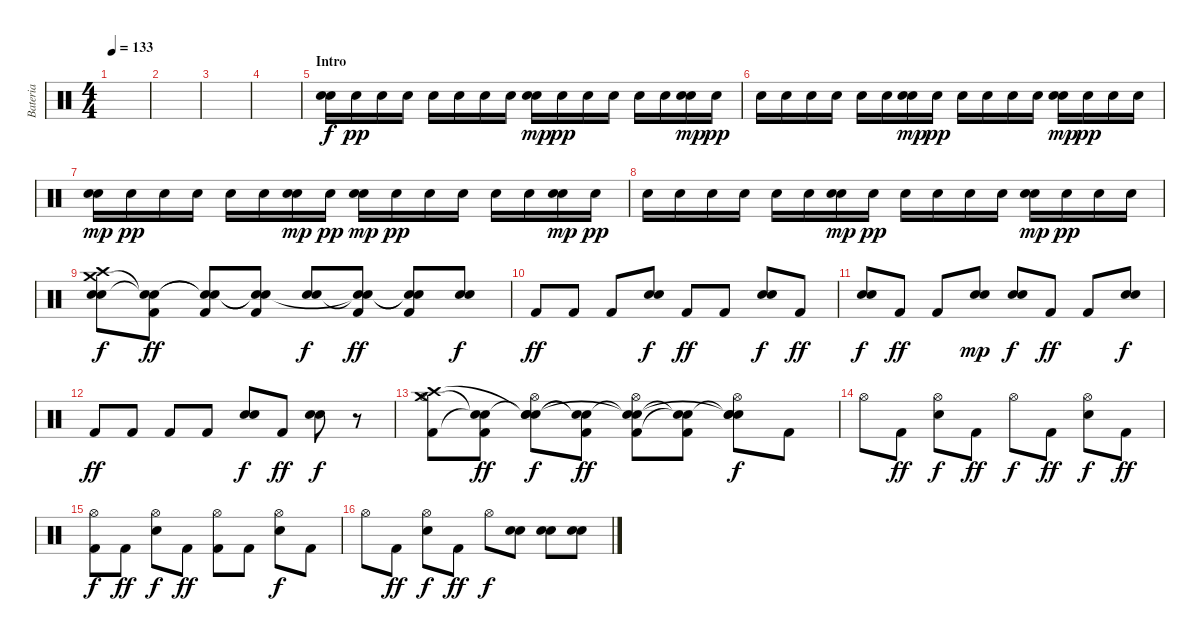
\track ("Bateria" "Bateria") {instrument percussion}
\staff {score}
\articulation defaults
\ts (4 4)
\tempo 133
\clef neutral
\ks c
|
|
|
|
\section ("" "Intro")
("Snare (hit) 2" "Snare (hit) 2").16 "Snare (hit) 2".16{dy pp} "Snare (hit) 2".16 "Snare (hit) 2".16 "Snare (hit) 2".16 "Snare (hit) 2".16 "Snare (hit) 2".16 "Snare (hit) 2".16 ("Snare (hit) 2" "Snare (hit) 2").16{dy mp} "Snare (hit) 2".16{dy pp} "Snare (hit) 2".16 "Snare (hit) 2".16 "Snare (hit) 2".16 "Snare (hit) 2".16 ("Snare (hit) 2" "Snare (hit) 2").16{dy mp} "Snare (hit) 2".16{dy pp} |
"Snare (hit) 2".16 "Snare (hit) 2".16 "Snare (hit) 2".16 "Snare (hit) 2".16 "Snare (hit) 2".16 "Snare (hit) 2".16 ("Snare (hit) 2" "Snare (hit) 2").16{dy mp} "Snare (hit) 2".16{dy pp} "Snare (hit) 2".16 "Snare (hit) 2".16 "Snare (hit) 2".16 "Snare (hit) 2".16 ("Snare (hit) 2" "Snare (hit) 2").16{dy mp} "Snare (hit) 2".16{dy pp} "Snare (hit) 2".16 "Snare (hit) 2".16 |
("Snare (hit) 2" "Snare (hit) 2").16{dy mp} "Snare (hit) 2".16{dy pp} "Snare (hit) 2".16 "Snare (hit) 2".16 "Snare (hit) 2".16 "Snare (hit) 2".16 ("Snare (hit) 2" "Snare (hit) 2").16{dy mp} "Snare (hit) 2".16{dy pp} ("Snare (hit) 2" "Snare (hit) 2").16{dy mp} "Snare (hit) 2".16{dy pp} "Snare (hit) 2".16 "Snare (hit) 2".16 "Snare (hit) 2".16 "Snare (hit) 2".16 ("Snare (hit) 2" "Snare (hit) 2").16{dy mp} "Snare (hit) 2".16{dy pp} |
"Snare (hit) 2".16 "Snare (hit) 2".16 "Snare (hit) 2".16 "Snare (hit) 2".16 "Snare (hit) 2".16 "Snare (hit) 2".16 ("Snare (hit) 2" "Snare (hit) 2").16{dy mp} "Snare (hit) 2".16{dy pp} "Snare (hit) 2".16 "Snare (hit) 2".16 "Snare (hit) 2".16 "Snare (hit) 2".16 ("Snare (hit) 2" "Snare (hit) 2").16{dy mp} "Snare (hit) 2".16{dy pp} "Snare (hit) 2".16 "Snare (hit) 2".16 |
("Snare (hit) 2" "Snare (hit) 2" "Crash medium (hit)" "Crash high (hit)").8{dy f} ("Kick (hit) 2" "Snare (hit)"{t} "Snare (hit)"{t}).8{dy ff} ("Kick (hit) 2" "Snare (hit)"{t} "Snare (hit)"{t}).8 ("Kick (hit) 2" "Snare (hit)"{t} "Snare (hit)"{t}).8 ("Snare (hit) 2" "Snare (hit) 2").8{dy f} ("Kick (hit) 2" "Snare (hit)"{t} "Snare (hit)"{t}).8{dy ff} ("Kick (hit) 2" "Snare (hit)"{t} "Snare (hit)"{t}).8 ("Snare (hit) 2" "Snare (hit) 2").8{dy f} |
"Kick (hit) 2".8{dy ff} "Kick (hit) 2".8 "Kick (hit) 2".8 ("Snare (hit) 2" "Snare (hit) 2").8{dy f} "Kick (hit) 2".8{dy ff} "Kick (hit) 2".8 ("Snare (hit) 2" "Snare (hit) 2").8{dy f} "Kick (hit) 2".8{dy ff} |
("Snare (hit) 2" "Snare (hit) 2").8{dy f} "Kick (hit) 2".8{dy ff} "Kick (hit) 2".8 ("Snare (hit) 2" "Snare (hit) 2").8{dy mp} ("Snare (hit) 2" "Snare (hit) 2").8{dy f} "Kick (hit) 2".8{dy ff} "Kick (hit) 2".8 ("Snare (hit) 2" "Snare (hit) 2").8{dy f} |
"Kick (hit) 2".8{dy ff} "Kick (hit) 2".8 "Kick (hit) 2".8 "Kick (hit) 2".8 ("Snare (hit) 2" "Snare (hit) 2").8{dy f} "Kick (hit) 2".8{dy ff} ("Snare (hit) 2" "Snare (hit) 2").8{dy f} r.8 |
("Hi-Hat (open)" "Kick (hit) 2" "Crash medium (hit)" "Crash high (hit)").8 ("Kick (hit) 2" "Snare (hit)"{t} "Snare (hit)"{t}).8{dy ff} ("Hi-Hat (open)" "Snare (hit) 2" "Snare (hit)"{t} "Snare (hit)"{t}).8{dy f} ("Kick (hit) 2" "Snare (hit)"{t} "Snare (hit)"{t}).8{dy ff} ("Hi-Hat (open)" "Kick (hit) 2" "Snare (hit)"{t} "Snare (hit)"{t}).8 ("Kick (hit) 2" "Snare (hit)"{t} "Snare (hit)"{t}).8 ("Hi-Hat (open)" "Snare (hit) 2" "Snare (hit)"{t} "Snare (hit)"{t}).8{dy f} "Kick (hit) 2".8 |
"Hi-Hat (open)".8 "Kick (hit) 2".8{dy ff} ("Hi-Hat (open)" "Snare (hit) 2").8{dy f} "Kick (hit) 2".8{dy ff} "Hi-Hat (open)".8{dy f} "Kick (hit) 2".8{dy ff} ("Hi-Hat (open)" "Snare (hit) 2").8{dy f} "Kick (hit) 2".8{dy ff} |
("Hi-Hat (open)" "Kick (hit) 2").8{dy f} "Kick (hit) 2".8{dy ff} ("Hi-Hat (open)" "Snare (hit) 2").8{dy f} "Kick (hit) 2".8{dy ff} ("Hi-Hat (open)" "Kick (hit) 2").8 "Kick (hit) 2".8 ("Hi-Hat (open)" "Snare (hit) 2").8{dy f} "Kick (hit) 2".8 |
"Hi-Hat (open)".8 "Kick (hit) 2".8{dy ff} ("Hi-Hat (open)" "Snare (hit) 2").8{dy f} "Kick (hit) 2".8{dy ff} "Hi-Hat (open)".8{dy f} ("Snare (hit) 2" "Snare (hit) 2").8 ("Snare (hit) 2" "Snare (hit) 2").8 ("Snare (hit) 2" "Snare (hit) 2").8
